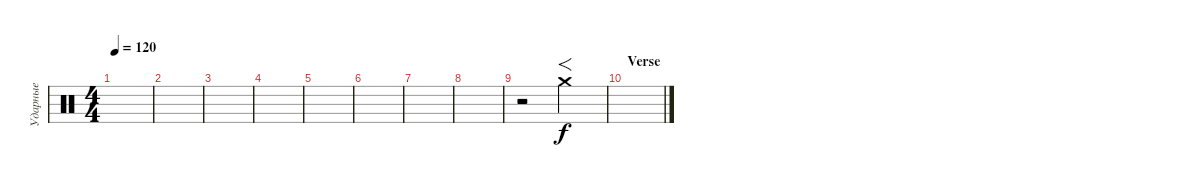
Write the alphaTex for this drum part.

\track ("Ударные" "Ударные") {instrument percussion}
\staff {score}
\articulation defaults
\ts (4 4)
\tempo 120
\clef neutral
\ks c
|
|
|
|
|
|
|
|
r.2 "Crash medium (hit)".2{f} |
\section ("" "Verse")
